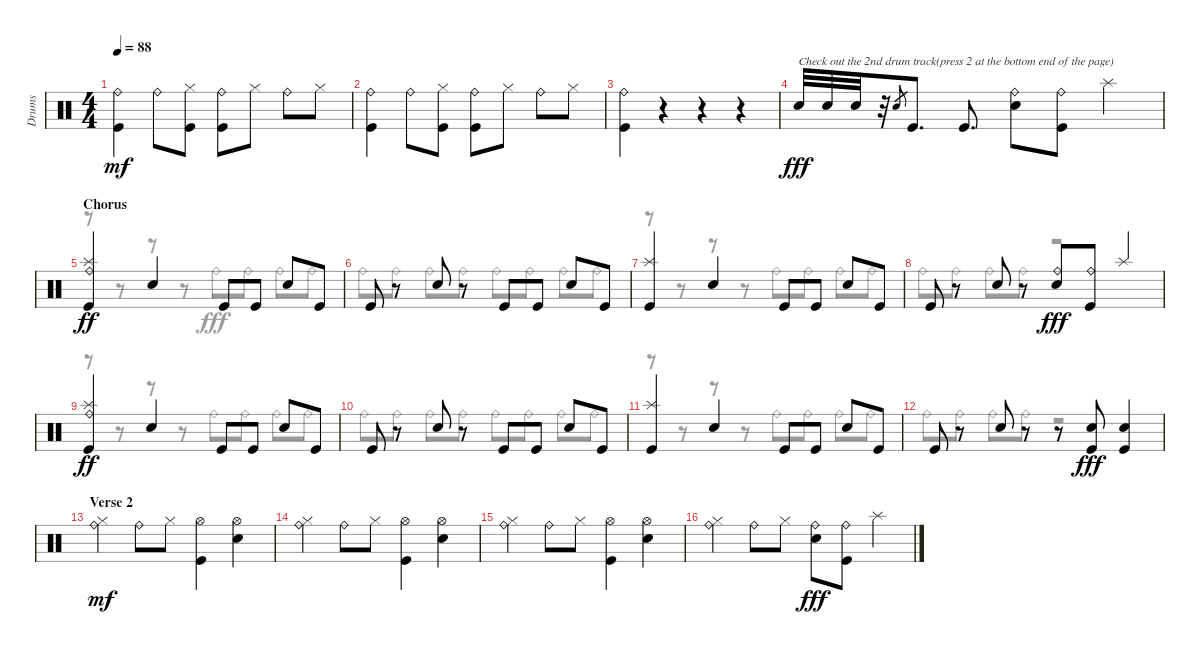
\track ("Drums" "Drums") {instrument percussion}
\staff {score}
\articulation defaults
\voice
\ts (4 4)
\tempo 88
\clef neutral
\ks c
("Ride (bell)" "Kick (hit)").4{dy mf} "Ride (bell)".8 ("Hi-Hat (closed)" "Kick (hit)").8 ("Ride (bell)" "Kick (hit)").8 "Hi-Hat (closed)".8 "Ride (bell)".8 "Hi-Hat (closed)".8 |
("Ride (bell)" "Kick (hit)").4 "Ride (bell)".8 ("Hi-Hat (closed)" "Kick (hit)").8 ("Ride (bell)" "Kick (hit)").8 "Hi-Hat (closed)".8 "Ride (bell)".8 "Hi-Hat (closed)".8 |
("Ride (bell)" "Kick (hit)").4 r.4 r.4 r.4 |
"Snare (hit) 2".32{txt "Check out the 2nd drum track(press 2 at the bottom end of the page)" dy fff} "Snare (hit) 2".32 "Snare (hit) 2".32 r.32 "Snare (hit)".8{gr} "Kick (hit)".8{d} "Kick (hit)".8{d} ("Snare (hit) 2" "Ride (bell)").8 ("Kick (hit)" "Ride (bell)").8 "Splash (hit)".4 |
\section ("" "Chorus")
("Kick (hit)" "Splash (hit)" "Ride (bell)").4{dy ff} "Snare (hit) 2".4 "Kick (hit)".8 "Kick (hit)".8 "Snare (hit) 2".8 "Kick (hit)".8 |
"Kick (hit)".8 r.8 "Snare (hit) 2".8 r.8 "Kick (hit)".8 "Kick (hit)".8 "Snare (hit) 2".8 "Kick (hit)".8 |
("Kick (hit)" "Splash (hit)").4 "Snare (hit) 2".4 "Kick (hit)".8 "Kick (hit)".8 "Snare (hit) 2".8 "Kick (hit)".8 |
"Kick (hit)".8 r.8 "Snare (hit) 2".8 r.8 ("Snare (hit) 2" "Ride (bell)").8{dy fff} ("Kick (hit)" "Ride (bell)").8 "Splash (hit)".4 |
("Kick (hit)" "Splash (hit)" "Ride (bell)").4{dy ff} "Snare (hit) 2".4 "Kick (hit)".8 "Kick (hit)".8 "Snare (hit) 2".8 "Kick (hit)".8 |
"Kick (hit)".8 r.8 "Snare (hit) 2".8 r.8 "Kick (hit)".8 "Kick (hit)".8 "Snare (hit) 2".8 "Kick (hit)".8 |
("Kick (hit)" "Splash (hit)").4 "Snare (hit) 2".4 "Kick (hit)".8 "Kick (hit)".8 "Snare (hit) 2".8 "Kick (hit)".8 |
"Kick (hit)".8 r.8 "Snare (hit) 2".8 r.8 r.8 ("Snare (hit) 2" "Kick (hit)").8{dy fff} ("Kick (hit)" "Snare (hit) 2").4 |
\section ("" "Verse 2")
("Ride (bell)" "Hi-Hat (closed)").4{dy mf} "Ride (bell)".8 "Hi-Hat (closed)".8 ("Kick (hit)" "Hi-Hat (open)").4 ("Snare (hit) 2" "Hi-Hat (open)").4 |
("Ride (bell)" "Hi-Hat (closed)").4 "Ride (bell)".8 "Hi-Hat (closed)".8 ("Kick (hit)" "Hi-Hat (open)").4 ("Snare (hit) 2" "Hi-Hat (open)").4 |
("Ride (bell)" "Hi-Hat (closed)").4 "Ride (bell)".8 "Hi-Hat (closed)".8 ("Kick (hit)" "Hi-Hat (open)").4 ("Snare (hit) 2" "Hi-Hat (open)").4 |
("Ride (bell)" "Hi-Hat (closed)").4 "Ride (bell)".8 "Hi-Hat (closed)".8 ("Snare (hit) 2" "Ride (bell)").8{dy fff} ("Kick (hit)" "Ride (bell)").8 "Splash (hit)".4
\voice
\clef neutral
\ottava regular
\simile none
\ks c
|
|
|
|
r.8 r.8 r.8 r.8 "Ride (bell)".8 "Ride (bell)".8 "Ride (bell)".8 "Ride (bell)".8 |
"Ride (bell)".8 "Ride (bell)".8 "Ride (bell)".8 "Ride (bell)".8 "Ride (bell)".8 "Ride (bell)".8 "Ride (bell)".8 "Ride (bell)".8 |
r.8 r.8 r.8 r.8 "Ride (bell)".8 "Ride (bell)".8 "Ride (bell)".8 "Ride (bell)".8 |
"Ride (bell)".8 "Ride (bell)".8 "Ride (bell)".8 "Ride (bell)".8 r.2 |
r.8 r.8 r.8 r.8 "Ride (bell)".8 "Ride (bell)".8 "Ride (bell)".8 "Ride (bell)".8 |
"Ride (bell)".8 "Ride (bell)".8 "Ride (bell)".8 "Ride (bell)".8 "Ride (bell)".8 "Ride (bell)".8 "Ride (bell)".8 "Ride (bell)".8 |
r.8 r.8 r.8 r.8 "Ride (bell)".8 "Ride (bell)".8 "Ride (bell)".8 "Ride (bell)".8 |
"Ride (bell)".8 "Ride (bell)".8 "Ride (bell)".8 "Ride (bell)".8 r.2 |
|
|
|
